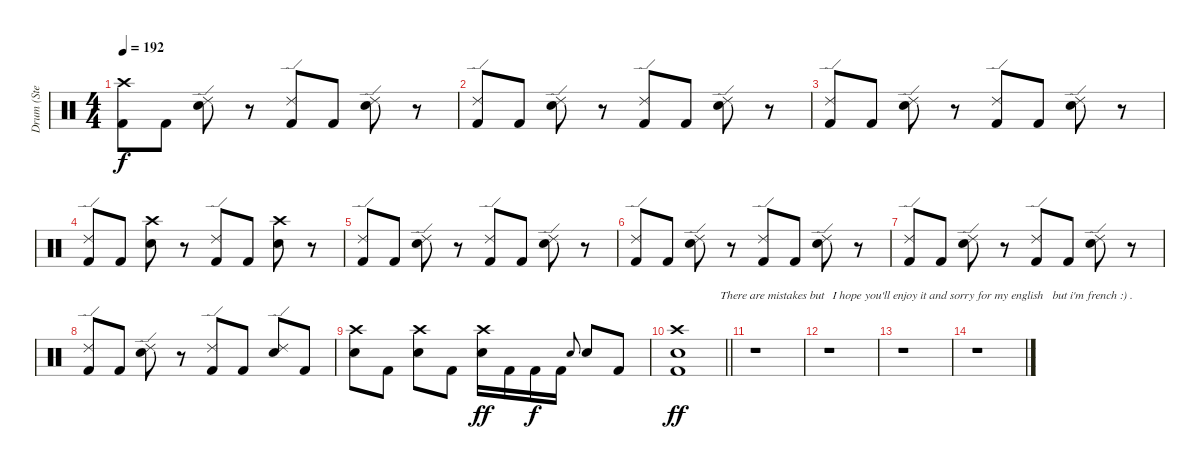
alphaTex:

\track (" Drum (Steve O)" " Drum (Ste") {instrument percussion}
\staff {score}
\articulation defaults
\ts (4 4)
\tempo 192
\clef neutral
\ks c
("Crash high (hit)" "Kick (hit) 2").8{dy f} "Kick (hit) 2".8 ("Ride (edge) 2" "Snare (hit) 2").8 r.8 ("Ride (edge) 2" "Kick (hit) 2").8 "Kick (hit) 2".8 ("Ride (edge) 2" "Snare (hit) 2").8 r.8 |
("Ride (edge) 2" "Kick (hit) 2").8 "Kick (hit) 2".8 ("Ride (edge) 2" "Snare (hit) 2").8 r.8 ("Ride (edge) 2" "Kick (hit) 2").8 "Kick (hit) 2".8 ("Ride (edge) 2" "Snare (hit) 2").8 r.8 |
("Ride (edge) 2" "Kick (hit) 2").8 "Kick (hit) 2".8 ("Ride (edge) 2" "Snare (hit) 2").8 r.8 ("Ride (edge) 2" "Kick (hit) 2").8 "Kick (hit) 2".8 ("Ride (edge) 2" "Snare (hit) 2").8 r.8 |
("Ride (edge) 2" "Kick (hit) 2").8 "Kick (hit) 2".8 ("Crash high (hit)" "Snare (hit) 2").8 r.8 ("Ride (edge) 2" "Kick (hit) 2").8 "Kick (hit) 2".8 ("Crash high (hit)" "Snare (hit) 2").8 r.8 |
("Ride (edge) 2" "Kick (hit) 2").8 "Kick (hit) 2".8 ("Ride (edge) 2" "Snare (hit) 2").8 r.8 ("Ride (edge) 2" "Kick (hit) 2").8 "Kick (hit) 2".8 ("Ride (edge) 2" "Snare (hit) 2").8 r.8 |
("Ride (edge) 2" "Kick (hit) 2").8 "Kick (hit) 2".8 ("Ride (edge) 2" "Snare (hit) 2").8 r.8 ("Ride (edge) 2" "Kick (hit) 2").8 "Kick (hit) 2".8 ("Ride (edge) 2" "Snare (hit) 2").8 r.8 |
("Ride (edge) 2" "Kick (hit) 2").8 "Kick (hit) 2".8 ("Ride (edge) 2" "Snare (hit) 2").8 r.8 ("Ride (edge) 2" "Kick (hit) 2").8 "Kick (hit) 2".8 ("Ride (edge) 2" "Snare (hit) 2").8 r.8 |
("Ride (edge) 2" "Kick (hit) 2").8 "Kick (hit) 2".8 ("Ride (edge) 2" "Snare (hit) 2").8 r.8 ("Ride (edge) 2" "Kick (hit) 2").8 "Kick (hit) 2".8 ("Ride (edge) 2" "Snare (hit) 2").8 "Kick (hit) 2".8 |
("Crash high (hit)" "Snare (hit) 2").8 "Kick (hit) 2".8 ("Crash high (hit)" "Snare (hit) 2").8 "Kick (hit) 2".8 ("Crash high (hit)" "Snare (hit) 2").16{dy ff} "Kick (hit) 2".16 "Kick (hit) 2".16{dy f} "Kick (hit) 2".16 "Snare (hit) 2".8{gr onbeat} "Snare (hit) 2".8 "Kick (hit) 2".8 |
\barLineRight lightlight
("Crash high (hit)" "Snare (hit) 2" "Kick (hit) 2").1{txt "              There are mistakes but" dy ff} |
r.1 |
r.1{txt " I hope you'll enjoy it and sorry for my english "} |
r.1 |
r.1{txt "                         but i'm french :) ."}
